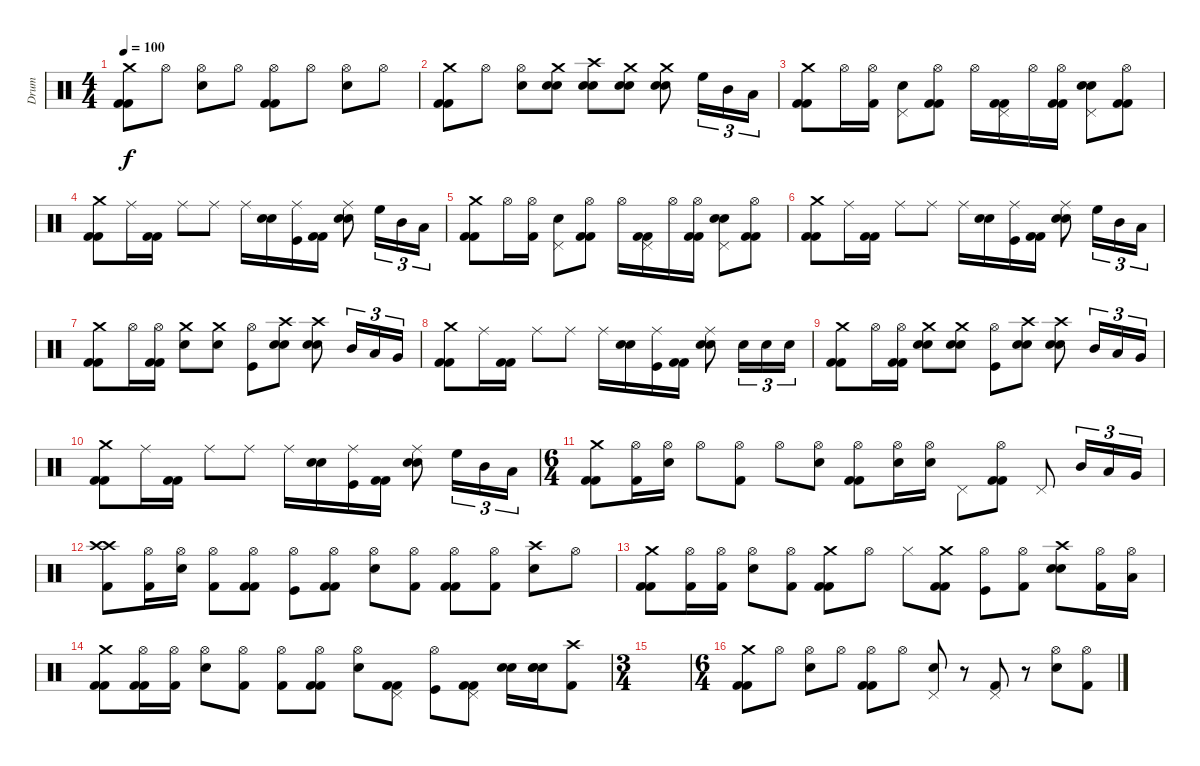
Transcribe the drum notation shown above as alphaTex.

\track ("Drum" "Drum") {instrument percussion}
\staff {score}
\articulation defaults
\ts (4 4)
\tempo 100
\clef neutral
\ks c
("Crash medium (hit)" "Kick (hit) 2" "Kick (hit) 2").8{dy f} "Hi-Hat (open)".8 ("Hi-Hat (open)" "Snare (hit) 2").8 "Hi-Hat (open)".8 ("Hi-Hat (open)" "Kick (hit) 2" "Kick (hit) 2").8 "Hi-Hat (open)".8 ("Hi-Hat (open)" "Snare (hit) 2").8 "Hi-Hat (open)".8 |
("Crash medium (hit)" "Kick (hit) 2" "Kick (hit) 2").8 "Hi-Hat (open)".8 ("Hi-Hat (open)" "Snare (hit) 2").8 ("Crash medium (hit)" "Snare (hit) 2" "Snare (hit) 2").8 ("Crash high (hit)" "Snare (hit) 2" "Snare (hit) 2").8 ("Crash medium (hit)" "Snare (hit) 2" "Snare (hit) 2").8 ("Crash medium (hit)" "Snare (hit) 2" "Snare (hit) 2").8 "High Floor Tom (hit)".16{tu (3 2)} "Mid Tom (hit)".16{tu (3 2)} "Low Tom (hit)".16{tu (3 2)} |
("Crash medium (hit)" "Kick (hit) 2" "Kick (hit) 2").8 "Hi-Hat (open)".16 ("Hi-Hat (open)" "Kick (hit) 2").16 ("Pedal Hi-Hat (hit)" "Snare (hit) 2").8 ("Hi-Hat (open)" "Kick (hit) 2" "Kick (hit) 2").8 "Hi-Hat (open)".16 ("Pedal Hi-Hat (hit)" "Kick (hit) 2" "Kick (hit) 2").16 "Hi-Hat (open)".16 ("Hi-Hat (open)" "Kick (hit) 2" "Kick (hit) 2").16 ("Pedal Hi-Hat (hit)" "Snare (hit) 2" "Snare (hit) 2").8 ("Hi-Hat (open)" "Kick (hit) 2" "Kick (hit) 2").8 |
("Crash medium (hit)" "Kick (hit) 2" "Kick (hit) 2").8 "Ride (middle)".16 ("Kick (hit) 2" "Kick (hit) 2").16 "Ride (middle)".8 "Ride (middle)".8 "Ride (middle)".16 ("Snare (hit) 2" "Snare (hit) 2").16 ("Ride (middle)" "Kick (hit)").16 ("Kick (hit) 2" "Kick (hit) 2").16 ("Ride (middle)" "Snare (hit) 2" "Snare (hit) 2").8 "High Floor Tom (hit)".16{tu (3 2)} "Mid Tom (hit)".16{tu (3 2)} "Low Tom (hit)".16{tu (3 2)} |
("Crash medium (hit)" "Kick (hit) 2" "Kick (hit) 2").8 "Hi-Hat (open)".16 ("Hi-Hat (open)" "Kick (hit) 2").16 ("Pedal Hi-Hat (hit)" "Snare (hit) 2").8 ("Hi-Hat (open)" "Kick (hit) 2" "Kick (hit) 2").8 "Hi-Hat (open)".16 ("Pedal Hi-Hat (hit)" "Kick (hit) 2" "Kick (hit) 2").16 "Hi-Hat (open)".16 ("Hi-Hat (open)" "Kick (hit) 2" "Kick (hit) 2").16 ("Pedal Hi-Hat (hit)" "Snare (hit) 2" "Snare (hit) 2").8 ("Hi-Hat (open)" "Kick (hit) 2" "Kick (hit) 2").8 |
("Crash medium (hit)" "Kick (hit) 2" "Kick (hit) 2").8 "Ride (middle)".16 ("Kick (hit) 2" "Kick (hit) 2").16 "Ride (middle)".8 "Ride (middle)".8 "Ride (middle)".16 ("Snare (hit) 2" "Snare (hit) 2").16 ("Ride (middle)" "Kick (hit)").16 ("Kick (hit) 2" "Kick (hit) 2").16 ("Ride (middle)" "Snare (hit) 2" "Snare (hit) 2").8 "High Floor Tom (hit)".16{tu (3 2)} "Mid Tom (hit)".16{tu (3 2)} "Low Tom (hit)".16{tu (3 2)} |
("Crash medium (hit)" "Kick (hit) 2" "Kick (hit) 2").8 "Hi-Hat (open)".16 ("Hi-Hat (open)" "Kick (hit) 2" "Kick (hit) 2").16 ("Crash medium (hit)" "Electric Snare (hit)").8 ("Crash medium (hit)" "Electric Snare (hit)").8 ("Hi-Hat (open)" "Kick (hit)").8 ("Crash high (hit)" "Snare (hit) 2" "Snare (hit) 2").8 ("Crash high (hit)" "Snare (hit) 2" "Snare (hit) 2").8 "Mid Tom (hit)".16{tu (3 2)} "Low Tom (hit)".16{tu (3 2)} "Very Low Tom (hit)".16{tu (3 2)} |
("Crash medium (hit)" "Kick (hit) 2" "Kick (hit) 2").8 "Ride (middle)".16 ("Kick (hit) 2" "Kick (hit) 2").16 "Ride (middle)".8 "Ride (middle)".8 "Ride (middle)".16 ("Snare (hit) 2" "Snare (hit) 2").16 ("Ride (middle)" "Kick (hit)").16 ("Kick (hit) 2" "Kick (hit) 2").16 ("Ride (middle)" "Snare (hit) 2" "Snare (hit) 2").8 "Electric Snare (hit)".16{tu (3 2)} "Electric Snare (hit)".16{tu (3 2)} "Electric Snare (hit)".16{tu (3 2)} |
("Crash medium (hit)" "Kick (hit) 2" "Kick (hit) 2").8 "Hi-Hat (open)".16 ("Hi-Hat (open)" "Kick (hit) 2" "Kick (hit) 2").16 ("Crash medium (hit)" "Snare (hit) 2" "Snare (hit) 2").8 ("Crash medium (hit)" "Snare (hit) 2" "Snare (hit) 2").8 ("Hi-Hat (open)" "Kick (hit)").8 ("Crash high (hit)" "Snare (hit) 2" "Snare (hit) 2").8 ("Crash high (hit)" "Snare (hit) 2" "Snare (hit) 2").8 "Mid Tom (hit)".16{tu (3 2)} "Low Tom (hit)".16{tu (3 2)} "Very Low Tom (hit)".16{tu (3 2)} |
("Crash medium (hit)" "Kick (hit) 2" "Kick (hit) 2").8 "Ride (middle)".16 ("Kick (hit) 2" "Kick (hit) 2").16 "Ride (middle)".8 "Ride (middle)".8 "Ride (middle)".16 ("Snare (hit) 2" "Snare (hit) 2").16 ("Ride (middle)" "Kick (hit)").16 ("Kick (hit) 2" "Kick (hit) 2").16 ("Ride (middle)" "Snare (hit) 2" "Snare (hit) 2").8 "High Floor Tom (hit)".16{tu (3 2)} "Mid Tom (hit)".16{tu (3 2)} "Low Tom (hit)".16{tu (3 2)} |
\ts (6 4)
("Crash medium (hit)" "Kick (hit) 2" "Kick (hit) 2").8 ("Hi-Hat (open)" "Kick (hit) 2").16 ("Hi-Hat (open)" "Snare (hit) 2").16 "Hi-Hat (open)".8 ("Hi-Hat (open)" "Kick (hit) 2").8 "Hi-Hat (open)".8 ("Hi-Hat (open)" "Electric Snare (hit)").8 ("Hi-Hat (open)" "Kick (hit) 2" "Kick (hit) 2").8 ("Hi-Hat (open)" "Snare (hit) 2").16 ("Hi-Hat (open)" "Snare (hit) 2").16 "Pedal Hi-Hat (hit)".8 ("Hi-Hat (open)" "Kick (hit) 2" "Kick (hit) 2").8 "Pedal Hi-Hat (hit)".8 "Mid Tom (hit)".16{tu (3 2)} "Low Tom (hit)".16{tu (3 2)} "Very Low Tom (hit)".16{tu (3 2)} |
("Crash high (hit)" "Crash high (hit)" "Kick (hit) 2").8 ("Hi-Hat (open)" "Kick (hit) 2").16 ("Hi-Hat (open)" "Snare (hit) 2").16 ("Hi-Hat (open)" "Kick (hit) 2").8 ("Hi-Hat (open)" "Kick (hit) 2" "Kick (hit) 2").8 ("Hi-Hat (open)" "Kick (hit)").8 ("Hi-Hat (open)" "Kick (hit) 2" "Kick (hit) 2").8 ("Hi-Hat (open)" "Snare (hit) 2").8 ("Hi-Hat (open)" "Kick (hit) 2").8 ("Hi-Hat (open)" "Kick (hit) 2" "Kick (hit) 2").8 ("Hi-Hat (open)" "Kick (hit) 2").8 ("Crash high (hit)" "Electric Snare (hit)").8 "Hi-Hat (open)".8 |
("Crash medium (hit)" "Kick (hit) 2" "Kick (hit) 2").8 ("Hi-Hat (open)" "Kick (hit) 2").16 ("Hi-Hat (open)" "Kick (hit) 2").16 ("Hi-Hat (open)" "Snare (hit) 2").8 ("Hi-Hat (open)" "Kick (hit) 2").8 ("Crash medium (hit)" "Kick (hit) 2" "Kick (hit) 2").8 "Hi-Hat (open)".8 "Hi-Hat (closed)".8 ("Crash medium (hit)" "Kick (hit) 2" "Kick (hit) 2").8 ("Hi-Hat (open)" "Kick (hit)").8 ("Hi-Hat (open)" "Kick (hit) 2").8 ("Crash high (hit)" "Snare (hit) 2" "Snare (hit) 2").8 ("Hi-Hat (open)" "Kick (hit) 2").16 ("Hi-Hat (open)" "Low Tom (hit)").16 |
("Crash medium (hit)" "Kick (hit) 2" "Kick (hit) 2").8 ("Hi-Hat (open)" "Kick (hit) 2" "Kick (hit) 2").16 ("Hi-Hat (open)" "Kick (hit) 2").16 ("Hi-Hat (open)" "Snare (hit) 2").8 ("Hi-Hat (open)" "Kick (hit) 2").8 ("Hi-Hat (open)" "Kick (hit) 2").8 ("Hi-Hat (open)" "Kick (hit) 2" "Kick (hit) 2").8 ("Hi-Hat (open)" "Snare (hit) 2").8 ("Pedal Hi-Hat (hit)" "Kick (hit) 2" "Kick (hit) 2").8 ("Hi-Hat (open)" "Kick (hit)").8 ("Pedal Hi-Hat (hit)" "Kick (hit) 2" "Kick (hit) 2").8 ("Snare (hit) 2" "Snare (hit) 2").16 ("Snare (hit) 2" "Snare (hit) 2" "Snare (hit) 2").16 ("Crash high (hit)" "Kick (hit) 2").8 |
\ts (3 4)
|
\ts (6 4)
("Crash medium (hit)" "Kick (hit) 2" "Kick (hit) 2").8 "Hi-Hat (open)".8 ("Hi-Hat (open)" "Snare (hit) 2").8 "Hi-Hat (open)".8 ("Hi-Hat (open)" "Kick (hit) 2" "Kick (hit) 2").8 "Hi-Hat (open)".8 ("Pedal Hi-Hat (hit)" "Snare (hit) 2").8 r.8 ("Pedal Hi-Hat (hit)" "Kick (hit) 2").8 r.8 ("Hi-Hat (open)" "Snare (hit) 2").8 ("Hi-Hat (open)" "Kick (hit) 2").8
